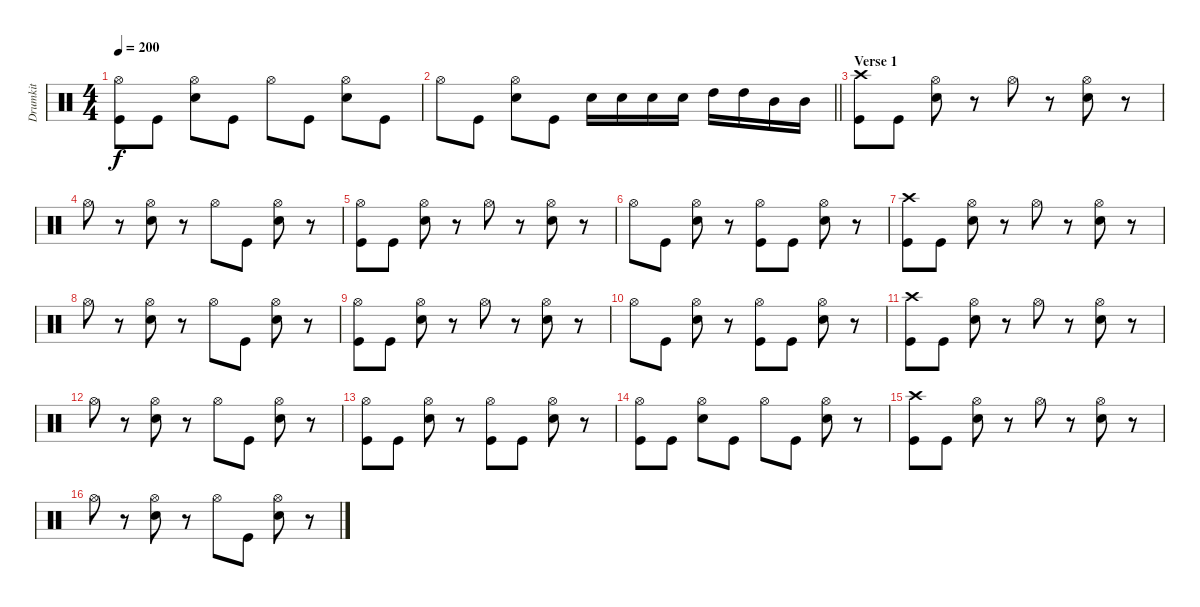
\track ("Drumkit" "Drumkit") {instrument percussion}
\staff {score}
\articulation defaults
\ts (4 4)
\tempo 200
\clef neutral
\ks c
("Hi-Hat (open)" "Kick (hit)").8{dy f} "Kick (hit)".8 ("Hi-Hat (open)" "Snare (hit) 2").8 "Kick (hit)".8 "Hi-Hat (open)".8 "Kick (hit)".8 ("Snare (hit) 2" "Hi-Hat (open)").8 "Kick (hit)".8 |
\barLineRight lightlight "Hi-Hat (open)".8 "Kick (hit)".8
("Hi-Hat (open)" "Snare (hit) 2").8 "Kick (hit)".8 "Snare (hit) 2".16 "Snare (hit) 2".16 "Snare (hit) 2".16 "Snare (hit) 2".16 "High Tom (hit)".16 "High Tom (hit)".16 "Mid Tom (hit)".16 "Mid Tom (hit)".16 |
\section ("" "Verse 1")
("Crash high (hit)" "Kick (hit)").8 "Kick (hit)".8 ("Snare (hit) 2" "Hi-Hat (open)").8 r.8 "Hi-Hat (open)".8 r.8 ("Snare (hit) 2" "Hi-Hat (open)").8 r.8 |
"Hi-Hat (open)".8 r.8 ("Snare (hit) 2" "Hi-Hat (open)").8 r.8 "Hi-Hat (open)".8 "Kick (hit)".8 ("Snare (hit) 2" "Hi-Hat (open)").8 r.8 |
("Hi-Hat (open)" "Kick (hit)").8 "Kick (hit)".8 ("Snare (hit) 2" "Hi-Hat (open)").8 r.8 "Hi-Hat (open)".8 r.8 ("Snare (hit) 2" "Hi-Hat (open)").8 r.8 |
"Hi-Hat (open)".8 "Kick (hit)".8 ("Snare (hit) 2" "Hi-Hat (open)").8 r.8 ("Hi-Hat (open)" "Kick (hit)").8 "Kick (hit)".8 ("Snare (hit) 2" "Hi-Hat (open)").8 r.8 |
("Crash high (hit)" "Kick (hit)").8 "Kick (hit)".8 ("Snare (hit) 2" "Hi-Hat (open)").8 r.8 "Hi-Hat (open)".8 r.8 ("Snare (hit) 2" "Hi-Hat (open)").8 r.8 |
"Hi-Hat (open)".8 r.8 ("Snare (hit) 2" "Hi-Hat (open)").8 r.8 "Hi-Hat (open)".8 "Kick (hit)".8 ("Snare (hit) 2" "Hi-Hat (open)").8 r.8 |
("Hi-Hat (open)" "Kick (hit)").8 "Kick (hit)".8 ("Snare (hit) 2" "Hi-Hat (open)").8 r.8 "Hi-Hat (open)".8 r.8 ("Snare (hit) 2" "Hi-Hat (open)").8 r.8 |
"Hi-Hat (open)".8 "Kick (hit)".8 ("Snare (hit) 2" "Hi-Hat (open)").8 r.8 ("Hi-Hat (open)" "Kick (hit)").8 "Kick (hit)".8 ("Snare (hit) 2" "Hi-Hat (open)").8 r.8 |
("Crash high (hit)" "Kick (hit)").8 "Kick (hit)".8 ("Snare (hit) 2" "Hi-Hat (open)").8 r.8 "Hi-Hat (open)".8 r.8 ("Snare (hit) 2" "Hi-Hat (open)").8 r.8 |
"Hi-Hat (open)".8 r.8 ("Snare (hit) 2" "Hi-Hat (open)").8 r.8 "Hi-Hat (open)".8 "Kick (hit)".8 ("Snare (hit) 2" "Hi-Hat (open)").8 r.8 |
("Hi-Hat (open)" "Kick (hit)").8 "Kick (hit)".8 ("Snare (hit) 2" "Hi-Hat (open)").8 r.8 ("Kick (hit)" "Hi-Hat (open)").8 "Kick (hit)".8 ("Snare (hit) 2" "Hi-Hat (open)").8 r.8 |
("Kick (hit)" "Hi-Hat (open)").8 "Kick (hit)".8 ("Snare (hit) 2" "Hi-Hat (open)").8 "Kick (hit)".8 "Hi-Hat (open)".8 "Kick (hit)".8 ("Snare (hit) 2" "Hi-Hat (open)").8 r.8 |
("Crash high (hit)" "Kick (hit)").8 "Kick (hit)".8 ("Snare (hit) 2" "Hi-Hat (open)").8 r.8 "Hi-Hat (open)".8 r.8 ("Snare (hit) 2" "Hi-Hat (open)").8 r.8 |
"Hi-Hat (open)".8 r.8 ("Snare (hit) 2" "Hi-Hat (open)").8 r.8 "Hi-Hat (open)".8 "Kick (hit)".8 ("Snare (hit) 2" "Hi-Hat (open)").8 r.8
